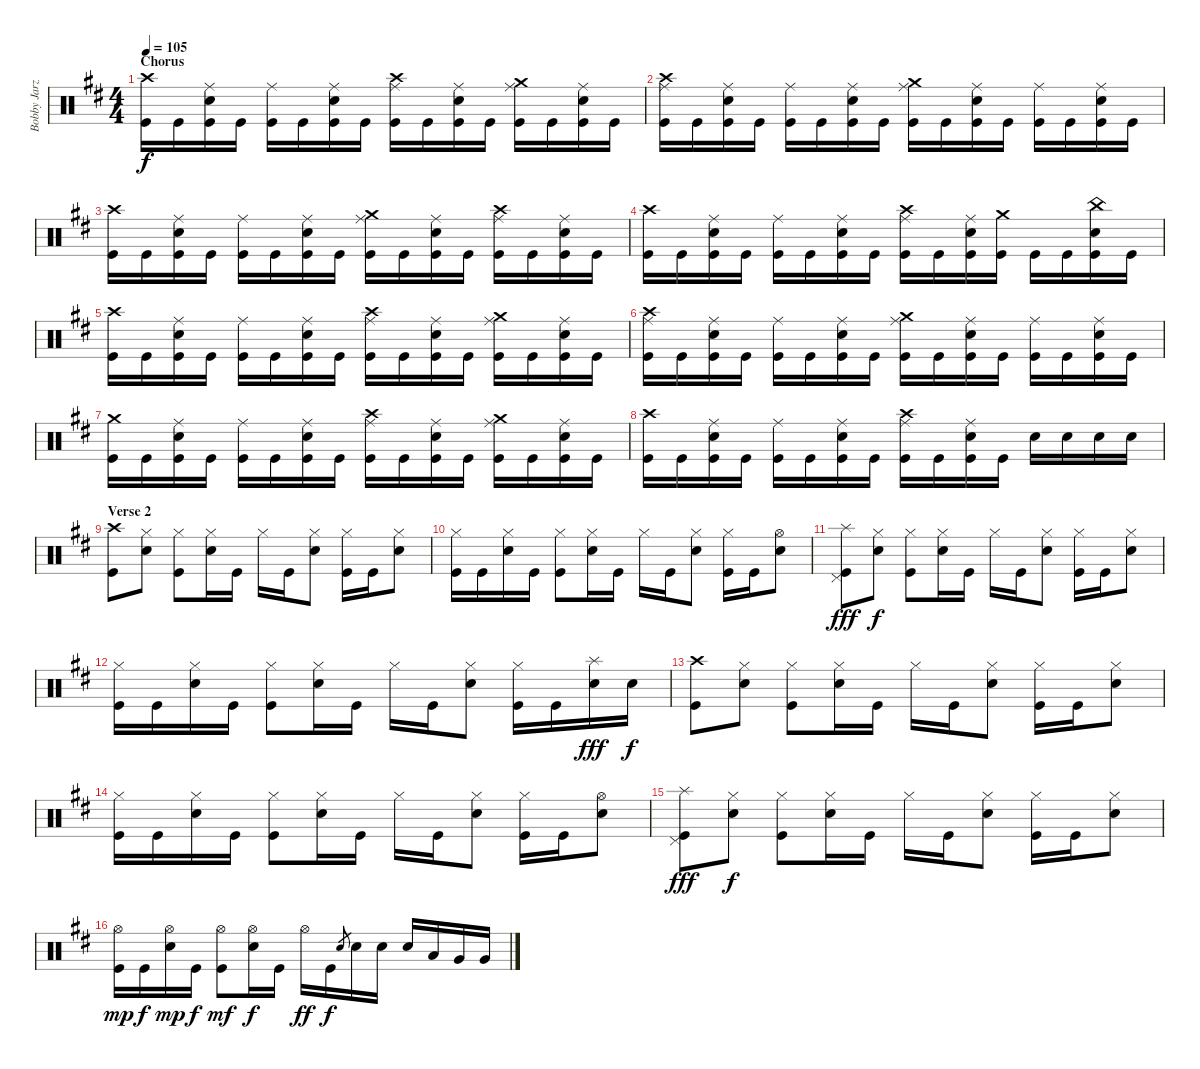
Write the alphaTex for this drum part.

\track ("Bobby Jarzombek" "Bobby Jarz") {instrument percussion}
\staff {score}
\articulation defaults
\ts (4 4)
\section ("" "Chorus")
\tempo 105
\clef neutral
\ks d
("Crash high (hit)" "Kick (hit)").16{dy f} "Kick (hit)".16 ("Ride (middle)" "Electric Snare (hit)" "Kick (hit)").16 "Kick (hit)".16 ("Ride (middle)" "Kick (hit)").16 "Kick (hit)".16 ("Ride (middle)" "Electric Snare (hit)" "Kick (hit)").16 "Kick (hit)".16 ("Crash high (hit)" "Ride (middle)" "Kick (hit)").16 "Kick (hit)".16 ("Ride (middle)" "Electric Snare (hit)" "Kick (hit)").16 "Kick (hit)".16 ("Crash medium (hit)" "Ride (middle)" "Kick (hit)").16 "Kick (hit)".16 ("Ride (middle)" "Electric Snare (hit)" "Kick (hit)").16 "Kick (hit)".16 |
("Crash high (hit)" "Ride (middle)" "Kick (hit)").16 "Kick (hit)".16 ("Ride (middle)" "Electric Snare (hit)" "Kick (hit)").16 "Kick (hit)".16 ("Ride (middle)" "Kick (hit)").16 "Kick (hit)".16 ("Ride (middle)" "Electric Snare (hit)" "Kick (hit)").16 "Kick (hit)".16 ("Crash medium (hit)" "Ride (middle)" "Kick (hit)").16 "Kick (hit)".16 ("Ride (middle)" "Electric Snare (hit)" "Kick (hit)").16 "Kick (hit)".16 ("Ride (middle)" "Kick (hit)").16 "Kick (hit)".16 ("Ride (middle)" "Electric Snare (hit)" "Kick (hit)").16 "Kick (hit)".16 |
("Crash high (hit)" "Kick (hit)").16 "Kick (hit)".16 ("Ride (middle)" "Electric Snare (hit)" "Kick (hit)").16 "Kick (hit)".16 ("Ride (middle)" "Kick (hit)").16 "Kick (hit)".16 ("Ride (middle)" "Electric Snare (hit)" "Kick (hit)").16 "Kick (hit)".16 ("Crash medium (hit)" "Ride (middle)" "Kick (hit)").16 "Kick (hit)".16 ("Ride (middle)" "Electric Snare (hit)" "Kick (hit)").16 "Kick (hit)".16 ("Crash high (hit)" "Ride (middle)" "Kick (hit)").16 "Kick (hit)".16 ("Ride (middle)" "Electric Snare (hit)" "Kick (hit)").16 "Kick (hit)".16 |
("Crash high (hit)" "Kick (hit)").16 "Kick (hit)".16 ("Ride (middle)" "Electric Snare (hit)" "Kick (hit)").16 "Kick (hit)".16 ("Ride (middle)" "Kick (hit)").16 "Kick (hit)".16 ("Ride (middle)" "Electric Snare (hit)" "Kick (hit)").16 "Kick (hit)".16 ("Crash high (hit)" "Ride (middle)" "Kick (hit)").16 "Kick (hit)".16 ("Ride (middle)" "Electric Snare (hit)" "Kick (hit)").16 ("Crash medium (hit)" "Kick (hit)").16 "Kick (hit)".16 "Kick (hit)".16 ("China (hit)" "Electric Snare (hit)" "Kick (hit)").16 "Kick (hit)".16 |
("Crash high (hit)" "Kick (hit)").16 "Kick (hit)".16 ("Ride (middle)" "Electric Snare (hit)" "Kick (hit)").16 "Kick (hit)".16 ("Ride (middle)" "Kick (hit)").16 "Kick (hit)".16 ("Ride (middle)" "Electric Snare (hit)" "Kick (hit)").16 "Kick (hit)".16 ("Crash high (hit)" "Ride (middle)" "Kick (hit)").16 "Kick (hit)".16 ("Ride (middle)" "Electric Snare (hit)" "Kick (hit)").16 "Kick (hit)".16 ("Crash medium (hit)" "Ride (middle)" "Kick (hit)").16 "Kick (hit)".16 ("Ride (middle)" "Electric Snare (hit)" "Kick (hit)").16 "Kick (hit)".16 |
("Crash high (hit)" "Ride (middle)" "Kick (hit)").16 "Kick (hit)".16 ("Ride (middle)" "Electric Snare (hit)" "Kick (hit)").16 "Kick (hit)".16 ("Ride (middle)" "Kick (hit)").16 "Kick (hit)".16 ("Ride (middle)" "Electric Snare (hit)" "Kick (hit)").16 "Kick (hit)".16 ("Crash medium (hit)" "Ride (middle)" "Kick (hit)").16 "Kick (hit)".16 ("Ride (middle)" "Electric Snare (hit)" "Kick (hit)").16 "Kick (hit)".16 ("Ride (middle)" "Kick (hit)").16 "Kick (hit)".16 ("Ride (middle)" "Electric Snare (hit)" "Kick (hit)").16 "Kick (hit)".16 |
("Crash medium (hit)" "Kick (hit)").16 "Kick (hit)".16 ("Ride (middle)" "Electric Snare (hit)" "Kick (hit)").16 "Kick (hit)".16 ("Ride (middle)" "Kick (hit)").16 "Kick (hit)".16 ("Ride (middle)" "Electric Snare (hit)" "Kick (hit)").16 "Kick (hit)".16 ("Crash high (hit)" "Ride (middle)" "Kick (hit)").16 "Kick (hit)".16 ("Ride (middle)" "Electric Snare (hit)" "Kick (hit)").16 "Kick (hit)".16 ("Crash medium (hit)" "Ride (middle)" "Kick (hit)").16 "Kick (hit)".16 ("Ride (middle)" "Electric Snare (hit)" "Kick (hit)").16 "Kick (hit)".16 |
("Crash high (hit)" "Kick (hit)").16 "Kick (hit)".16 ("Ride (middle)" "Electric Snare (hit)" "Kick (hit)").16 "Kick (hit)".16 ("Ride (middle)" "Kick (hit)").16 "Kick (hit)".16 ("Ride (middle)" "Electric Snare (hit)" "Kick (hit)").16 "Kick (hit)".16 ("Crash high (hit)" "Ride (middle)" "Kick (hit)").16 "Kick (hit)".16 ("Ride (middle)" "Electric Snare (hit)" "Kick (hit)").16 "Kick (hit)".16 "Electric Snare (hit)".16 "Electric Snare (hit)".16 "Electric Snare (hit)".16 "Electric Snare (hit)".16 |
\section ("" "Verse 2")
("Crash high (hit)" "Kick (hit)").8 ("Hi-Hat (closed)" "Electric Snare (hit)").8 ("Hi-Hat (closed)" "Kick (hit)").8 ("Hi-Hat (closed)" "Electric Snare (hit)").16 "Kick (hit)".16 "Hi-Hat (closed)".16 "Kick (hit)".16 ("Hi-Hat (closed)" "Electric Snare (hit)").8 ("Hi-Hat (closed)" "Kick (hit)").16 "Kick (hit)".16 ("Hi-Hat (closed)" "Electric Snare (hit)").8 |
("Hi-Hat (closed)" "Kick (hit)").16 "Kick (hit)".16 ("Hi-Hat (closed)" "Electric Snare (hit)").16 "Kick (hit)".16 ("Hi-Hat (closed)" "Kick (hit)").8 ("Hi-Hat (closed)" "Electric Snare (hit)").16 "Kick (hit)".16 "Hi-Hat (closed)".16 "Kick (hit)".16 ("Hi-Hat (closed)" "Electric Snare (hit)").8 ("Hi-Hat (closed)" "Kick (hit)").16 "Kick (hit)".16 ("Hi-Hat (open)" "Electric Snare (hit)").8 |
("Splash (hit)" "Pedal Hi-Hat (hit)" "Kick (hit)").8{dy fff} ("Hi-Hat (closed)" "Electric Snare (hit)").8{dy f} ("Hi-Hat (closed)" "Kick (hit)").8 ("Hi-Hat (closed)" "Electric Snare (hit)").16 "Kick (hit)".16 "Hi-Hat (closed)".16 "Kick (hit)".16 ("Hi-Hat (closed)" "Electric Snare (hit)").8 ("Hi-Hat (closed)" "Kick (hit)").16 "Kick (hit)".16 ("Hi-Hat (closed)" "Electric Snare (hit)").8 |
("Hi-Hat (closed)" "Kick (hit)").16 "Kick (hit)".16 ("Hi-Hat (closed)" "Electric Snare (hit)").16 "Kick (hit)".16 ("Hi-Hat (closed)" "Kick (hit)").8 ("Hi-Hat (closed)" "Electric Snare (hit)").16 "Kick (hit)".16 "Hi-Hat (closed)".16 "Kick (hit)".16 ("Hi-Hat (closed)" "Electric Snare (hit)").8 ("Hi-Hat (closed)" "Kick (hit)").16 "Kick (hit)".16 ("Splash (hit)" "Electric Snare (hit)").16{dy fff} "Electric Snare (hit)".16{dy f} |
("Crash high (hit)" "Kick (hit)").8 ("Hi-Hat (closed)" "Electric Snare (hit)").8 ("Hi-Hat (closed)" "Kick (hit)").8 ("Hi-Hat (closed)" "Electric Snare (hit)").16 "Kick (hit)".16 "Hi-Hat (closed)".16 "Kick (hit)".16 ("Hi-Hat (closed)" "Electric Snare (hit)").8 ("Hi-Hat (closed)" "Kick (hit)").16 "Kick (hit)".16 ("Hi-Hat (closed)" "Electric Snare (hit)").8 |
("Hi-Hat (closed)" "Kick (hit)").16 "Kick (hit)".16 ("Hi-Hat (closed)" "Electric Snare (hit)").16 "Kick (hit)".16 ("Hi-Hat (closed)" "Kick (hit)").8 ("Hi-Hat (closed)" "Electric Snare (hit)").16 "Kick (hit)".16 "Hi-Hat (closed)".16 "Kick (hit)".16 ("Hi-Hat (closed)" "Electric Snare (hit)").8 ("Hi-Hat (closed)" "Kick (hit)").16 "Kick (hit)".16 ("Hi-Hat (open)" "Electric Snare (hit)").8 |
("Splash (hit)" "Pedal Hi-Hat (hit)" "Kick (hit)").8{dy fff} ("Hi-Hat (closed)" "Electric Snare (hit)").8{dy f} ("Hi-Hat (closed)" "Kick (hit)").8 ("Hi-Hat (closed)" "Electric Snare (hit)").16 "Kick (hit)".16 "Hi-Hat (closed)".16 "Kick (hit)".16 ("Hi-Hat (closed)" "Electric Snare (hit)").8 ("Hi-Hat (closed)" "Kick (hit)").16 "Kick (hit)".16 ("Hi-Hat (closed)" "Electric Snare (hit)").8 |
("Hi-Hat (open)" "Kick (hit)").16{dy mp} "Kick (hit)".16{dy f} ("Hi-Hat (open)" "Electric Snare (hit)").16{dy mp} "Kick (hit)".16{dy f} ("Hi-Hat (open)" "Kick (hit)").8{dy mf} ("Hi-Hat (open)" "Electric Snare (hit)").16{dy f} "Kick (hit)".16 "Hi-Hat (open)".16{dy ff} "Kick (hit)".16{dy f} "Electric Snare (hit)".8{gr} "Electric Snare (hit)".16 "Electric Snare (hit)".16 "Electric Snare (hit)".16 "Low Tom (hit)".16 "Very Low Tom (hit)".16 "Very Low Tom (hit)".16
